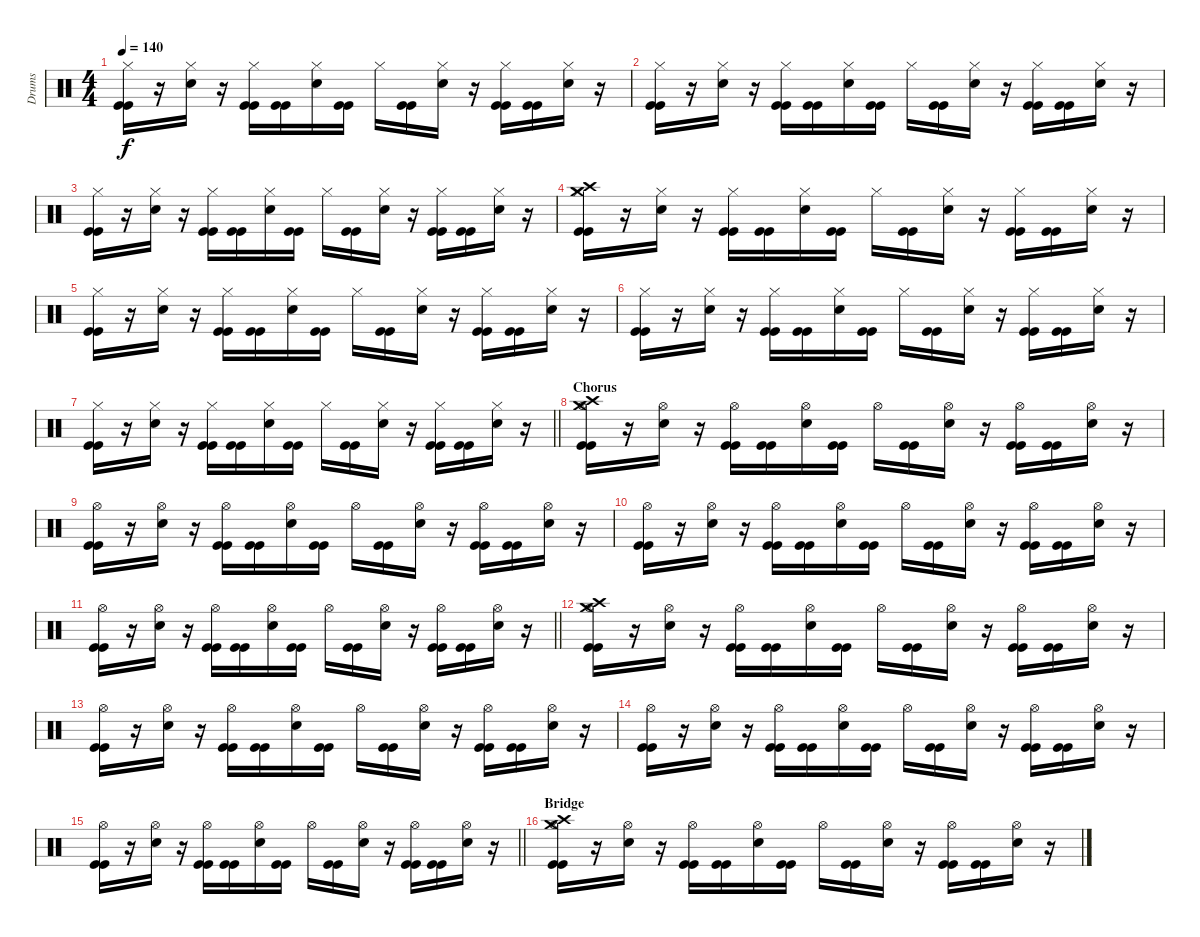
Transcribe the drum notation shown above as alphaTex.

\track ("Drums" "Drums") {instrument percussion}
\staff {score}
\articulation defaults
\ts (4 4)
\tempo 140
\clef neutral
\ks c
("Hi-Hat (closed)" "Kick (hit)" "Kick (hit)").16{dy f} r.16 ("Hi-Hat (closed)" "Snare (hit) 2").16 r.16 ("Hi-Hat (closed)" "Kick (hit)" "Kick (hit)").16 ("Kick (hit)" "Kick (hit)").16 ("Hi-Hat (closed)" "Snare (hit) 2").16 ("Kick (hit)" "Kick (hit)").16 "Hi-Hat (closed)".16 ("Kick (hit)" "Kick (hit)").16 ("Hi-Hat (closed)" "Snare (hit) 2").16 r.16 ("Hi-Hat (closed)" "Kick (hit)" "Kick (hit)").16 ("Kick (hit)" "Kick (hit)").16 ("Hi-Hat (closed)" "Snare (hit) 2").16 r.16 |
("Hi-Hat (closed)" "Kick (hit)" "Kick (hit)").16 r.16 ("Hi-Hat (closed)" "Snare (hit) 2").16 r.16 ("Hi-Hat (closed)" "Kick (hit)" "Kick (hit)").16 ("Kick (hit)" "Kick (hit)").16 ("Hi-Hat (closed)" "Snare (hit) 2").16 ("Kick (hit)" "Kick (hit)").16 "Hi-Hat (closed)".16 ("Kick (hit)" "Kick (hit)").16 ("Hi-Hat (closed)" "Snare (hit) 2").16 r.16 ("Hi-Hat (closed)" "Kick (hit)" "Kick (hit)").16 ("Kick (hit)" "Kick (hit)").16 ("Hi-Hat (closed)" "Snare (hit) 2").16 r.16 |
("Hi-Hat (closed)" "Kick (hit)" "Kick (hit)").16 r.16 ("Hi-Hat (closed)" "Snare (hit) 2").16 r.16 ("Hi-Hat (closed)" "Kick (hit)" "Kick (hit)").16 ("Kick (hit)" "Kick (hit)").16 ("Hi-Hat (closed)" "Snare (hit) 2").16 ("Kick (hit)" "Kick (hit)").16 "Hi-Hat (closed)".16 ("Kick (hit)" "Kick (hit)").16 ("Hi-Hat (closed)" "Snare (hit) 2").16 r.16 ("Hi-Hat (closed)" "Kick (hit)" "Kick (hit)").16 ("Kick (hit)" "Kick (hit)").16 ("Hi-Hat (closed)" "Snare (hit) 2").16 r.16 |
("Crash medium (hit)" "Crash high (hit)" "Hi-Hat (closed)" "Kick (hit)" "Kick (hit)").16 r.16 ("Hi-Hat (closed)" "Snare (hit) 2").16 r.16 ("Hi-Hat (closed)" "Kick (hit)" "Kick (hit)").16 ("Kick (hit)" "Kick (hit)").16 ("Hi-Hat (closed)" "Snare (hit) 2").16 ("Kick (hit)" "Kick (hit)").16 "Hi-Hat (closed)".16 ("Kick (hit)" "Kick (hit)").16 ("Hi-Hat (closed)" "Snare (hit) 2").16 r.16 ("Hi-Hat (closed)" "Kick (hit)" "Kick (hit)").16 ("Kick (hit)" "Kick (hit)").16 ("Hi-Hat (closed)" "Snare (hit) 2").16 r.16 |
("Hi-Hat (closed)" "Kick (hit)" "Kick (hit)").16 r.16 ("Hi-Hat (closed)" "Snare (hit) 2").16 r.16 ("Hi-Hat (closed)" "Kick (hit)" "Kick (hit)").16 ("Kick (hit)" "Kick (hit)").16 ("Hi-Hat (closed)" "Snare (hit) 2").16 ("Kick (hit)" "Kick (hit)").16 "Hi-Hat (closed)".16 ("Kick (hit)" "Kick (hit)").16 ("Hi-Hat (closed)" "Snare (hit) 2").16 r.16 ("Hi-Hat (closed)" "Kick (hit)" "Kick (hit)").16 ("Kick (hit)" "Kick (hit)").16 ("Hi-Hat (closed)" "Snare (hit) 2").16 r.16 |
("Hi-Hat (closed)" "Kick (hit)" "Kick (hit)").16 r.16 ("Hi-Hat (closed)" "Snare (hit) 2").16 r.16 ("Hi-Hat (closed)" "Kick (hit)" "Kick (hit)").16 ("Kick (hit)" "Kick (hit)").16 ("Hi-Hat (closed)" "Snare (hit) 2").16 ("Kick (hit)" "Kick (hit)").16 "Hi-Hat (closed)".16 ("Kick (hit)" "Kick (hit)").16 ("Hi-Hat (closed)" "Snare (hit) 2").16 r.16 ("Hi-Hat (closed)" "Kick (hit)" "Kick (hit)").16 ("Kick (hit)" "Kick (hit)").16 ("Hi-Hat (closed)" "Snare (hit) 2").16 r.16 |
\barLineRight lightlight
("Hi-Hat (closed)" "Kick (hit)" "Kick (hit)").16 r.16 ("Hi-Hat (closed)" "Snare (hit) 2").16 r.16 ("Hi-Hat (closed)" "Kick (hit)" "Kick (hit)").16 ("Kick (hit)" "Kick (hit)").16 ("Hi-Hat (closed)" "Snare (hit) 2").16 ("Kick (hit)" "Kick (hit)").16 "Hi-Hat (closed)".16 ("Kick (hit)" "Kick (hit)").16 ("Hi-Hat (closed)" "Snare (hit) 2").16 r.16 ("Hi-Hat (closed)" "Kick (hit)" "Kick (hit)").16 ("Kick (hit)" "Kick (hit)").16 ("Hi-Hat (closed)" "Snare (hit) 2").16 r.16 |
\section ("" "Chorus")
("Crash medium (hit)" "Crash high (hit)" "Hi-Hat (open)" "Kick (hit)" "Kick (hit)").16 r.16 ("Hi-Hat (open)" "Snare (hit) 2").16 r.16 ("Hi-Hat (open)" "Kick (hit)" "Kick (hit)").16 ("Kick (hit)" "Kick (hit)").16 ("Hi-Hat (open)" "Snare (hit) 2").16 ("Kick (hit)" "Kick (hit)").16 "Hi-Hat (open)".16 ("Kick (hit)" "Kick (hit)").16 ("Hi-Hat (open)" "Snare (hit) 2").16 r.16 ("Hi-Hat (open)" "Kick (hit)" "Kick (hit)").16 ("Kick (hit)" "Kick (hit)").16 ("Hi-Hat (open)" "Snare (hit) 2").16 r.16 |
("Hi-Hat (open)" "Kick (hit)" "Kick (hit)").16 r.16 ("Hi-Hat (open)" "Snare (hit) 2").16 r.16 ("Hi-Hat (open)" "Kick (hit)" "Kick (hit)").16 ("Kick (hit)" "Kick (hit)").16 ("Hi-Hat (open)" "Snare (hit) 2").16 ("Kick (hit)" "Kick (hit)").16 "Hi-Hat (open)".16 ("Kick (hit)" "Kick (hit)").16 ("Hi-Hat (open)" "Snare (hit) 2").16 r.16 ("Hi-Hat (open)" "Kick (hit)" "Kick (hit)").16 ("Kick (hit)" "Kick (hit)").16 ("Hi-Hat (open)" "Snare (hit) 2").16 r.16 |
("Hi-Hat (open)" "Kick (hit)" "Kick (hit)").16 r.16 ("Hi-Hat (open)" "Snare (hit) 2").16 r.16 ("Hi-Hat (open)" "Kick (hit)" "Kick (hit)").16 ("Kick (hit)" "Kick (hit)").16 ("Hi-Hat (open)" "Snare (hit) 2").16 ("Kick (hit)" "Kick (hit)").16 "Hi-Hat (open)".16 ("Kick (hit)" "Kick (hit)").16 ("Hi-Hat (open)" "Snare (hit) 2").16 r.16 ("Hi-Hat (open)" "Kick (hit)" "Kick (hit)").16 ("Kick (hit)" "Kick (hit)").16 ("Hi-Hat (open)" "Snare (hit) 2").16 r.16 |
\barLineRight lightlight
("Hi-Hat (open)" "Kick (hit)" "Kick (hit)").16 r.16 ("Hi-Hat (open)" "Snare (hit) 2").16 r.16 ("Hi-Hat (open)" "Kick (hit)" "Kick (hit)").16 ("Kick (hit)" "Kick (hit)").16 ("Hi-Hat (open)" "Snare (hit) 2").16 ("Kick (hit)" "Kick (hit)").16 "Hi-Hat (open)".16 ("Kick (hit)" "Kick (hit)").16 ("Hi-Hat (open)" "Snare (hit) 2").16 r.16 ("Hi-Hat (open)" "Kick (hit)" "Kick (hit)").16 ("Kick (hit)" "Kick (hit)").16 ("Hi-Hat (open)" "Snare (hit) 2").16 r.16 |
("Crash medium (hit)" "Crash high (hit)" "Hi-Hat (open)" "Kick (hit)" "Kick (hit)").16 r.16 ("Hi-Hat (open)" "Snare (hit) 2").16 r.16 ("Hi-Hat (open)" "Kick (hit)" "Kick (hit)").16 ("Kick (hit)" "Kick (hit)").16 ("Hi-Hat (open)" "Snare (hit) 2").16 ("Kick (hit)" "Kick (hit)").16 "Hi-Hat (open)".16 ("Kick (hit)" "Kick (hit)").16 ("Hi-Hat (open)" "Snare (hit) 2").16 r.16 ("Hi-Hat (open)" "Kick (hit)" "Kick (hit)").16 ("Kick (hit)" "Kick (hit)").16 ("Hi-Hat (open)" "Snare (hit) 2").16 r.16 |
("Hi-Hat (open)" "Kick (hit)" "Kick (hit)").16 r.16 ("Hi-Hat (open)" "Snare (hit) 2").16 r.16 ("Hi-Hat (open)" "Kick (hit)" "Kick (hit)").16 ("Kick (hit)" "Kick (hit)").16 ("Hi-Hat (open)" "Snare (hit) 2").16 ("Kick (hit)" "Kick (hit)").16 "Hi-Hat (open)".16 ("Kick (hit)" "Kick (hit)").16 ("Hi-Hat (open)" "Snare (hit) 2").16 r.16 ("Hi-Hat (open)" "Kick (hit)" "Kick (hit)").16 ("Kick (hit)" "Kick (hit)").16 ("Hi-Hat (open)" "Snare (hit) 2").16 r.16 |
("Hi-Hat (open)" "Kick (hit)" "Kick (hit)").16 r.16 ("Hi-Hat (open)" "Snare (hit) 2").16 r.16 ("Hi-Hat (open)" "Kick (hit)" "Kick (hit)").16 ("Kick (hit)" "Kick (hit)").16 ("Hi-Hat (open)" "Snare (hit) 2").16 ("Kick (hit)" "Kick (hit)").16 "Hi-Hat (open)".16 ("Kick (hit)" "Kick (hit)").16 ("Hi-Hat (open)" "Snare (hit) 2").16 r.16 ("Hi-Hat (open)" "Kick (hit)" "Kick (hit)").16 ("Kick (hit)" "Kick (hit)").16 ("Hi-Hat (open)" "Snare (hit) 2").16 r.16 |
\barLineRight lightlight
("Hi-Hat (open)" "Kick (hit)" "Kick (hit)").16 r.16 ("Hi-Hat (open)" "Snare (hit) 2").16 r.16 ("Hi-Hat (open)" "Kick (hit)" "Kick (hit)").16 ("Kick (hit)" "Kick (hit)").16 ("Hi-Hat (open)" "Snare (hit) 2").16 ("Kick (hit)" "Kick (hit)").16 "Hi-Hat (open)".16 ("Kick (hit)" "Kick (hit)").16 ("Hi-Hat (open)" "Snare (hit) 2").16 r.16 ("Hi-Hat (open)" "Kick (hit)" "Kick (hit)").16 ("Kick (hit)" "Kick (hit)").16 ("Hi-Hat (open)" "Snare (hit) 2").16 r.16 |
\section ("" "Bridge")
("Crash medium (hit)" "Crash high (hit)" "Hi-Hat (open)" "Kick (hit)" "Kick (hit)").16 r.16 ("Hi-Hat (open)" "Snare (hit) 2").16 r.16 ("Hi-Hat (open)" "Kick (hit)" "Kick (hit)").16 ("Kick (hit)" "Kick (hit)").16 ("Hi-Hat (open)" "Snare (hit) 2").16 ("Kick (hit)" "Kick (hit)").16 "Hi-Hat (open)".16 ("Kick (hit)" "Kick (hit)").16 ("Hi-Hat (open)" "Snare (hit) 2").16 r.16 ("Hi-Hat (open)" "Kick (hit)" "Kick (hit)").16 ("Kick (hit)" "Kick (hit)").16 ("Hi-Hat (open)" "Snare (hit) 2").16 r.16
